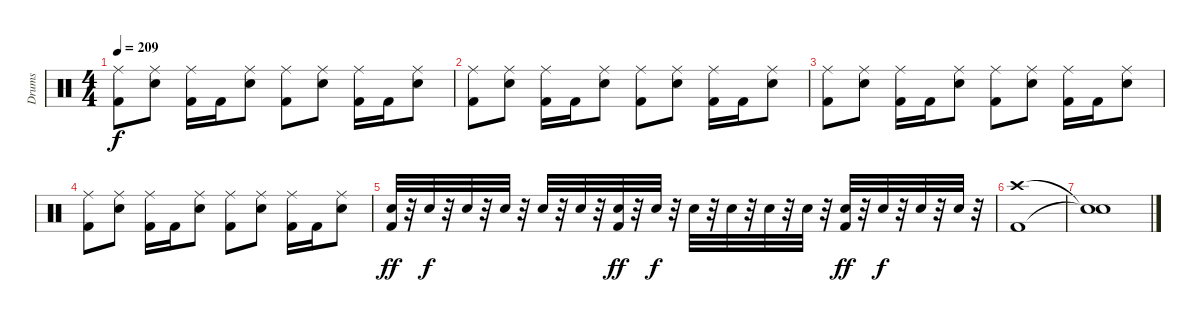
\track ("Drums" "Drums") {instrument percussion}
\staff {score}
\articulation defaults
\ts (4 4)
\tempo 209
\clef neutral
\ks c
("Kick (hit) 2" "Ride (middle)").8{dy f} ("Electric Snare (hit)" "Ride (middle)").8 ("Kick (hit) 2" "Ride (middle)").16 "Kick (hit) 2".16 ("Electric Snare (hit)" "Ride (middle)").8 ("Kick (hit) 2" "Ride (middle)").8 ("Electric Snare (hit)" "Ride (middle)").8 ("Kick (hit) 2" "Ride (middle)").16 "Kick (hit) 2".16 ("Electric Snare (hit)" "Ride (middle)").8 |
("Kick (hit) 2" "Ride (middle)").8 ("Electric Snare (hit)" "Ride (middle)").8 ("Kick (hit) 2" "Ride (middle)").16 "Kick (hit) 2".16 ("Electric Snare (hit)" "Ride (middle)").8 ("Kick (hit) 2" "Ride (middle)").8 ("Electric Snare (hit)" "Ride (middle)").8 ("Kick (hit) 2" "Ride (middle)").16 "Kick (hit) 2".16 ("Electric Snare (hit)" "Ride (middle)").8 |
("Kick (hit) 2" "Ride (middle)").8 ("Electric Snare (hit)" "Ride (middle)").8 ("Kick (hit) 2" "Ride (middle)").16 "Kick (hit) 2".16 ("Electric Snare (hit)" "Ride (middle)").8 ("Kick (hit) 2" "Ride (middle)").8 ("Electric Snare (hit)" "Ride (middle)").8 ("Kick (hit) 2" "Ride (middle)").16 "Kick (hit) 2".16 ("Electric Snare (hit)" "Ride (middle)").8 |
("Kick (hit) 2" "Ride (middle)").8 ("Electric Snare (hit)" "Ride (middle)").8 ("Kick (hit) 2" "Ride (middle)").16 "Kick (hit) 2".16 ("Electric Snare (hit)" "Ride (middle)").8 ("Kick (hit) 2" "Ride (middle)").8 ("Electric Snare (hit)" "Ride (middle)").8 ("Kick (hit) 2" "Ride (middle)").16 "Kick (hit) 2".16 ("Electric Snare (hit)" "Ride (middle)").8 |
("Kick (hit) 2" "Electric Snare (hit)").32{dy ff} r.32 "Electric Snare (hit)".32{dy f} r.32 "Electric Snare (hit)".32 r.32 "Electric Snare (hit)".32 r.32 "Electric Snare (hit)".32 r.32 "Electric Snare (hit)".32 r.32 ("Electric Snare (hit)" "Kick (hit) 2").32{dy ff} r.32 "Electric Snare (hit)".32{dy f} r.32 "Electric Snare (hit)".32 r.32 "Electric Snare (hit)".32 r.32 "Electric Snare (hit)".32 r.32 "Electric Snare (hit)".32 r.32 ("Kick (hit) 2" "Electric Snare (hit)").32{dy ff} r.32 "Electric Snare (hit)".32{dy f} r.32 "Electric Snare (hit)".32 r.32 "Electric Snare (hit)".32 r.32 |
("Kick (hit) 2" "Crash high (hit)").1 |
("Snare (hit)"{t} "Snare (hit)"{t}).1
